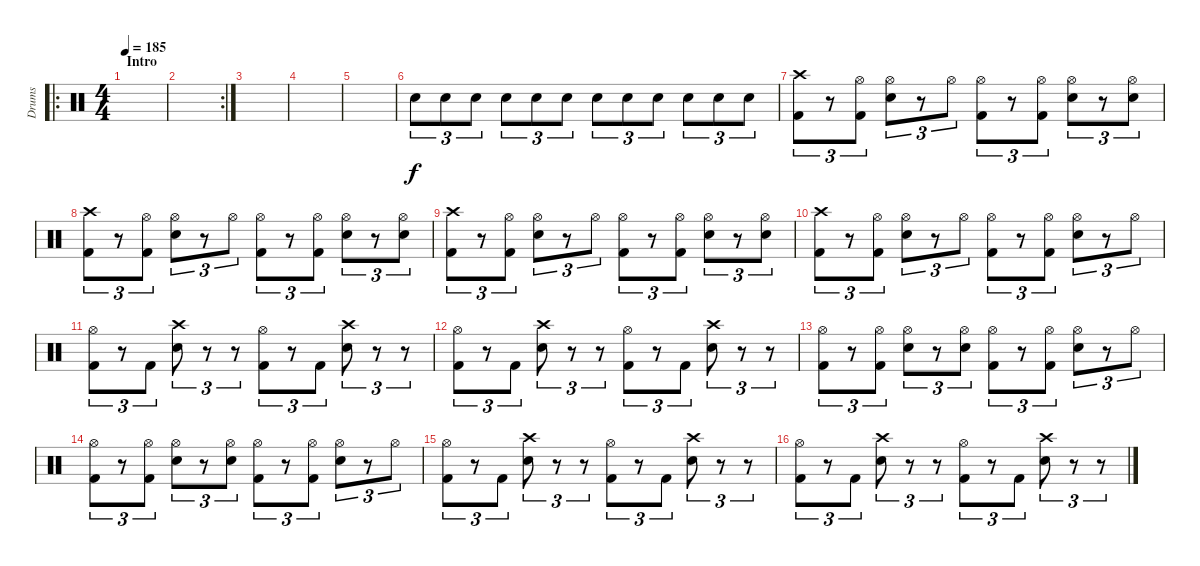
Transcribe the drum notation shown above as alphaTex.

\track ("Drums" "Drums") {instrument percussion}
\staff {score}
\articulation defaults
\ro
\ts (4 4)
\section ("" "Intro")
\tempo 185
\clef neutral
\ks c
|
\rc 2
|
|
|
|
"Electric Snare (hit)".8{tu (3 2)} "Electric Snare (hit)".8{tu (3 2)} "Electric Snare (hit)".8{tu (3 2)} "Electric Snare (hit)".8{tu (3 2)} "Electric Snare (hit)".8{tu (3 2)} "Electric Snare (hit)".8{tu (3 2)} "Electric Snare (hit)".8{tu (3 2)} "Electric Snare (hit)".8{tu (3 2)} "Electric Snare (hit)".8{tu (3 2)} "Electric Snare (hit)".8{tu (3 2)} "Electric Snare (hit)".8{tu (3 2)} "Electric Snare (hit)".8{tu (3 2)} |
("Crash high (hit)" "Kick (hit) 2").8{tu (3 2)} r.8{tu (3 2)} ("Hi-Hat (open)" "Kick (hit) 2").8{tu (3 2)} ("Hi-Hat (open)" "Electric Snare (hit)").8{tu (3 2)} r.8{tu (3 2)} "Hi-Hat (open)".8{tu (3 2)} ("Hi-Hat (open)" "Kick (hit) 2").8{tu (3 2)} r.8{tu (3 2)} ("Hi-Hat (open)" "Kick (hit) 2").8{tu (3 2)} ("Hi-Hat (open)" "Electric Snare (hit)").8{tu (3 2)} r.8{tu (3 2)} ("Hi-Hat (open)" "Electric Snare (hit)").8{tu (3 2)} |
("Crash high (hit)" "Kick (hit) 2").8{tu (3 2)} r.8{tu (3 2)} ("Hi-Hat (open)" "Kick (hit) 2").8{tu (3 2)} ("Hi-Hat (open)" "Electric Snare (hit)").8{tu (3 2)} r.8{tu (3 2)} "Hi-Hat (open)".8{tu (3 2)} ("Hi-Hat (open)" "Kick (hit) 2").8{tu (3 2)} r.8{tu (3 2)} ("Hi-Hat (open)" "Kick (hit) 2").8{tu (3 2)} ("Hi-Hat (open)" "Electric Snare (hit)").8{tu (3 2)} r.8{tu (3 2)} ("Hi-Hat (open)" "Electric Snare (hit)").8{tu (3 2)} |
("Crash high (hit)" "Kick (hit) 2").8{tu (3 2)} r.8{tu (3 2)} ("Hi-Hat (open)" "Kick (hit) 2").8{tu (3 2)} ("Hi-Hat (open)" "Electric Snare (hit)").8{tu (3 2)} r.8{tu (3 2)} "Hi-Hat (open)".8{tu (3 2)} ("Hi-Hat (open)" "Kick (hit) 2").8{tu (3 2)} r.8{tu (3 2)} ("Hi-Hat (open)" "Kick (hit) 2").8{tu (3 2)} ("Hi-Hat (open)" "Electric Snare (hit)").8{tu (3 2)} r.8{tu (3 2)} ("Hi-Hat (open)" "Electric Snare (hit)").8{tu (3 2)} |
("Crash high (hit)" "Kick (hit) 2").8{tu (3 2)} r.8{tu (3 2)} ("Hi-Hat (open)" "Kick (hit) 2").8{tu (3 2)} ("Hi-Hat (open)" "Electric Snare (hit)").8{tu (3 2)} r.8{tu (3 2)} "Hi-Hat (open)".8{tu (3 2)} ("Hi-Hat (open)" "Kick (hit) 2").8{tu (3 2)} r.8{tu (3 2)} ("Hi-Hat (open)" "Kick (hit) 2").8{tu (3 2)} ("Hi-Hat (open)" "Electric Snare (hit)").8{tu (3 2)} r.8{tu (3 2)} "Hi-Hat (open)".8{tu (3 2)} |
("Hi-Hat (open)" "Kick (hit) 2").8{tu (3 2)} r.8{tu (3 2)} "Kick (hit) 2".8{tu (3 2)} ("Crash high (hit)" "Electric Snare (hit)").8{tu (3 2)} r.8{tu (3 2)} r.8{tu (3 2)} ("Hi-Hat (open)" "Kick (hit) 2").8{tu (3 2)} r.8{tu (3 2)} "Kick (hit) 2".8{tu (3 2)} ("Crash high (hit)" "Electric Snare (hit)").8{tu (3 2)} r.8{tu (3 2)} r.8{tu (3 2)} |
("Hi-Hat (open)" "Kick (hit) 2").8{tu (3 2)} r.8{tu (3 2)} "Kick (hit) 2".8{tu (3 2)} ("Crash high (hit)" "Electric Snare (hit)").8{tu (3 2)} r.8{tu (3 2)} r.8{tu (3 2)} ("Hi-Hat (open)" "Kick (hit) 2").8{tu (3 2)} r.8{tu (3 2)} "Kick (hit) 2".8{tu (3 2)} ("Crash high (hit)" "Electric Snare (hit)").8{tu (3 2)} r.8{tu (3 2)} r.8{tu (3 2)} |
("Hi-Hat (open)" "Kick (hit) 2").8{tu (3 2)} r.8{tu (3 2)} ("Hi-Hat (open)" "Kick (hit) 2").8{tu (3 2)} ("Hi-Hat (open)" "Electric Snare (hit)").8{tu (3 2)} r.8{tu (3 2)} ("Hi-Hat (open)" "Electric Snare (hit)").8{tu (3 2)} ("Hi-Hat (open)" "Kick (hit) 2").8{tu (3 2)} r.8{tu (3 2)} ("Hi-Hat (open)" "Kick (hit) 2").8{tu (3 2)} ("Hi-Hat (open)" "Electric Snare (hit)").8{tu (3 2)} r.8{tu (3 2)} "Hi-Hat (open)".8{tu (3 2)} |
("Hi-Hat (open)" "Kick (hit) 2").8{tu (3 2)} r.8{tu (3 2)} ("Hi-Hat (open)" "Kick (hit) 2").8{tu (3 2)} ("Hi-Hat (open)" "Electric Snare (hit)").8{tu (3 2)} r.8{tu (3 2)} ("Hi-Hat (open)" "Electric Snare (hit)").8{tu (3 2)} ("Hi-Hat (open)" "Kick (hit) 2").8{tu (3 2)} r.8{tu (3 2)} ("Hi-Hat (open)" "Kick (hit) 2").8{tu (3 2)} ("Hi-Hat (open)" "Electric Snare (hit)").8{tu (3 2)} r.8{tu (3 2)} "Hi-Hat (open)".8{tu (3 2)} |
("Hi-Hat (open)" "Kick (hit) 2").8{tu (3 2)} r.8{tu (3 2)} "Kick (hit) 2".8{tu (3 2)} ("Crash high (hit)" "Electric Snare (hit)").8{tu (3 2)} r.8{tu (3 2)} r.8{tu (3 2)} ("Hi-Hat (open)" "Kick (hit) 2").8{tu (3 2)} r.8{tu (3 2)} "Kick (hit) 2".8{tu (3 2)} ("Crash high (hit)" "Electric Snare (hit)").8{tu (3 2)} r.8{tu (3 2)} r.8{tu (3 2)} |
("Hi-Hat (open)" "Kick (hit) 2").8{tu (3 2)} r.8{tu (3 2)} "Kick (hit) 2".8{tu (3 2)} ("Crash high (hit)" "Electric Snare (hit)").8{tu (3 2)} r.8{tu (3 2)} r.8{tu (3 2)} ("Hi-Hat (open)" "Kick (hit) 2").8{tu (3 2)} r.8{tu (3 2)} "Kick (hit) 2".8{tu (3 2)} ("Crash high (hit)" "Electric Snare (hit)").8{tu (3 2)} r.8{tu (3 2)} r.8{tu (3 2)}
